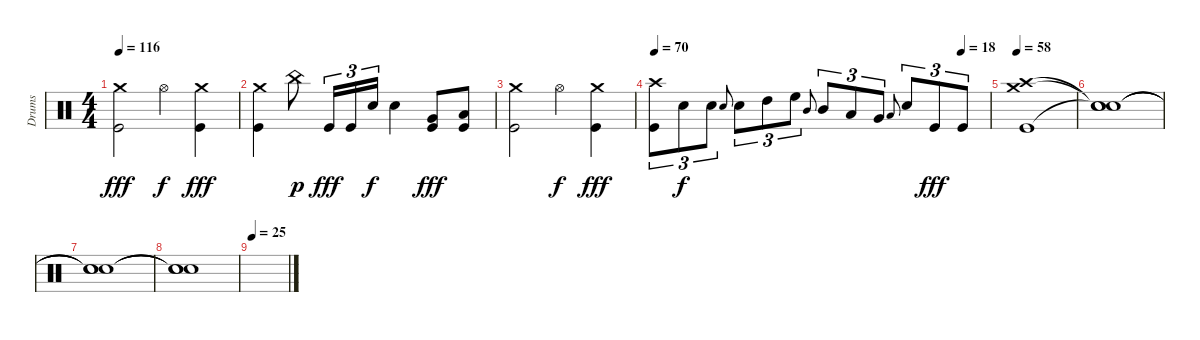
\track ("Drums" "Drums") {instrument percussion}
\staff {score}
\articulation defaults
\ts (4 4)
\tempo 116
\clef neutral
\ks c
("Crash medium (hit)" "Kick (hit)").2{dy fff} "Hi-Hat (open)".4{dy f} ("Crash medium (hit)" "Kick (hit)").4{dy fff} |
("Crash medium (hit)" "Kick (hit)").4 "China (hit)".8{dy p} "Kick (hit)".16{tu (3 2) dy fff} "Kick (hit)".16{tu (3 2)} "Electric Snare (hit)".16{tu (3 2) dy f} "Electric Snare (hit)".4 ("Very Low Tom (hit)" "Kick (hit)").8{dy fff} ("Low Floor Tom (hit)" "Kick (hit)").8 |
("Crash medium (hit)" "Kick (hit)").2 "Hi-Hat (open)".4{dy f} ("Crash medium (hit)" "Kick (hit)").4{dy fff} |
\tempo 70
\tempo (18 0.9166666666666666)
("Crash high (hit)" "Kick (hit)").8{tu (3 2)} "Electric Snare (hit)".8{tu (3 2) dy f} "Electric Snare (hit)".8{tu (3 2)} "Electric Snare (hit)".8{gr onbeat} "Electric Snare (hit)".8{tu (3 2)} "High Tom (hit)".8{tu (3 2)} "High Floor Tom (hit)".8{tu (3 2)} "Mid Tom (hit)".8{gr onbeat} "Mid Tom (hit)".8{tu (3 2)} "Low Tom (hit)".8{tu (3 2)} "Very Low Tom (hit)".8{tu (3 2)} "Low Tom (hit)".8{gr onbeat} "Electric Snare (hit)".8{tu (3 2)} "Kick (hit)".8{tu (3 2) dy fff} "Kick (hit)".8{tu (3 2)} |
\tempo 58
("Crash high (hit)" "Crash medium (hit)" "Kick (hit)").1 |
("Snare (hit)"{t} "Snare (hit)"{t} "Snare (hit)"{t}).1 |
("Snare (hit)"{t} "Snare (hit)"{t} "Snare (hit)"{t}).1 |
("Snare (hit)"{t} "Snare (hit)"{t} "Snare (hit)"{t}).1 |
\tempo 25
